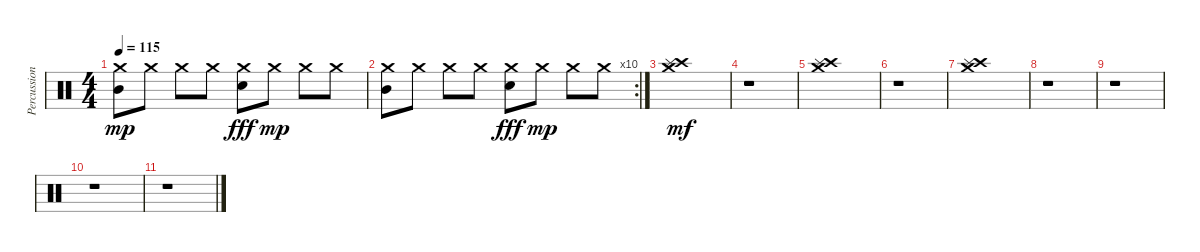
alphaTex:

\track ("Percussion" "Percussion") {instrument percussion}
\staff {score}
\articulation defaults
\ts (4 4)
\tempo 115
\clef neutral
\ks c
("Crash medium (hit)" "Mid Tom (hit)").8{dy mp} "Crash medium (hit)".8 "Crash medium (hit)".8 "Crash medium (hit)".8 ("Crash medium (hit)" "Electric Snare (hit)").8{dy fff} "Crash medium (hit)".8{dy mp} "Crash medium (hit)".8 "Crash medium (hit)".8 |
\rc 10
("Crash medium (hit)" "Mid Tom (hit)").8 "Crash medium (hit)".8 "Crash medium (hit)".8 "Crash medium (hit)".8 ("Crash medium (hit)" "Electric Snare (hit)").8{dy fff} "Crash medium (hit)".8{dy mp} "Crash medium (hit)".8 "Crash medium (hit)".8 |
("Crash medium (hit)" "Crash high (hit)" "Splash (hit)").1{dy mf} |
r.1 |
("Crash medium (hit)" "Crash high (hit)" "Splash (hit)").1 |
r.1 |
("Crash medium (hit)" "Crash high (hit)" "Splash (hit)").1 |
r.1 |
r.1 |
r.1 |
r.1
